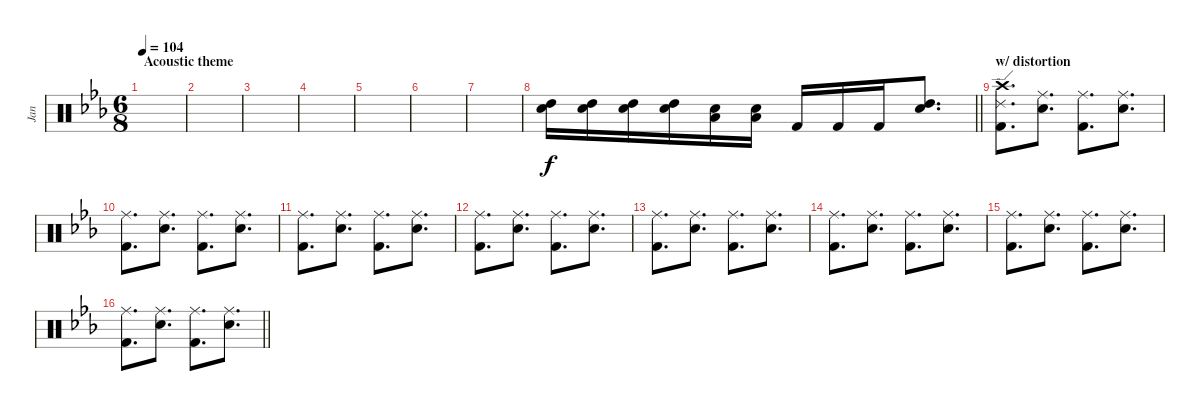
\track ("Jan" "Jan") {instrument percussion}
\staff {score}
\articulation defaults
\ts (6 8)
\section ("" "Acoustic theme")
\tempo 104
\clef neutral
\ks eb
|
|
|
|
|
|
|
\barLineRight lightlight
("High Tom (hit)" "Snare (hit) 2").16 ("High Tom (hit)" "Snare (hit) 2").16 ("High Tom (hit)" "Snare (hit) 2").16 ("High Tom (hit)" "Snare (hit) 2").16 ("Low Tom (hit)" "Snare (hit) 2").16 ("Low Tom (hit)" "Snare (hit) 2").16 "Kick (hit) 2".16 "Kick (hit) 2".16 "Kick (hit) 2".16 ("High Tom (hit)" "Snare (hit) 2").8{d} |
\section ("" "w/ distortion")
("Ride (edge) 2" "Crash high (hit)" "Kick (hit) 2").8{d} ("Snare (hit) 2" "Ride (middle)").8{d} ("Ride (middle)" "Kick (hit) 2").8{d} ("Snare (hit) 2" "Ride (middle)").8{d} |
("Ride (middle)" "Kick (hit) 2").8{d} ("Snare (hit) 2" "Ride (middle)").8{d} ("Ride (middle)" "Kick (hit) 2").8{d} ("Snare (hit) 2" "Ride (middle)").8{d} |
("Ride (middle)" "Kick (hit) 2").8{d} ("Snare (hit) 2" "Ride (middle)").8{d} ("Ride (middle)" "Kick (hit) 2").8{d} ("Snare (hit) 2" "Ride (middle)").8{d} |
("Ride (middle)" "Kick (hit) 2").8{d} ("Snare (hit) 2" "Ride (middle)").8{d} ("Ride (middle)" "Kick (hit) 2").8{d} ("Snare (hit) 2" "Ride (middle)").8{d} |
("Ride (middle)" "Kick (hit) 2").8{d} ("Snare (hit) 2" "Ride (middle)").8{d} ("Ride (middle)" "Kick (hit) 2").8{d} ("Snare (hit) 2" "Ride (middle)").8{d} |
("Ride (middle)" "Kick (hit) 2").8{d} ("Snare (hit) 2" "Ride (middle)").8{d} ("Ride (middle)" "Kick (hit) 2").8{d} ("Snare (hit) 2" "Ride (middle)").8{d} |
("Ride (middle)" "Kick (hit) 2").8{d} ("Snare (hit) 2" "Ride (middle)").8{d} ("Ride (middle)" "Kick (hit) 2").8{d} ("Snare (hit) 2" "Ride (middle)").8{d} |
\barLineRight lightlight
("Ride (middle)" "Kick (hit) 2").8{d} ("Snare (hit) 2" "Ride (middle)").8{d} ("Ride (middle)" "Kick (hit) 2").8{d} ("Snare (hit) 2" "Ride (middle)").8{d}
